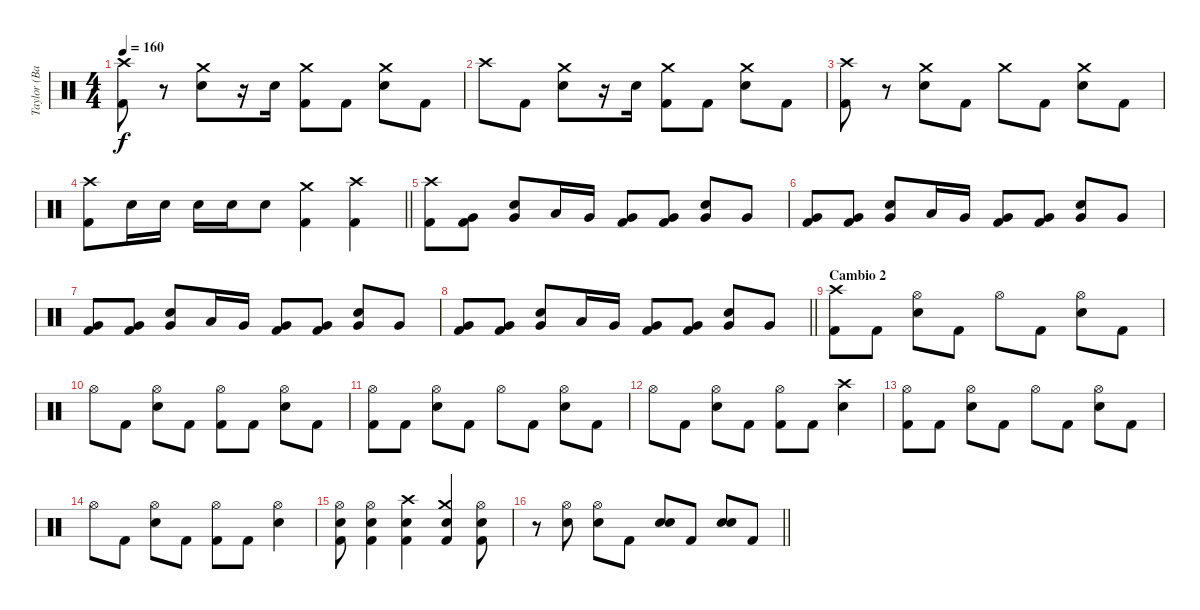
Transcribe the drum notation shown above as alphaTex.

\track ("Taylor (Batería)" "Taylor (Ba") {instrument percussion}
\staff {score}
\articulation defaults
\ts (4 4)
\tempo 160
\clef neutral
\ks c
("Crash high (hit)" "Kick (hit) 2").8{dy f} r.8 ("Crash medium (hit)" "Electric Snare (hit)").8 r.16 "Electric Snare (hit)".16 ("Crash medium (hit)" "Kick (hit) 2").8 "Kick (hit) 2".8 ("Crash medium (hit)" "Electric Snare (hit)").8 "Kick (hit) 2".8 |
"Crash high (hit)".8 "Kick (hit) 2".8 ("Crash medium (hit)" "Electric Snare (hit)").8 r.16 "Electric Snare (hit)".16 ("Crash medium (hit)" "Kick (hit) 2").8 "Kick (hit) 2".8 ("Crash medium (hit)" "Electric Snare (hit)").8 "Kick (hit) 2".8 |
("Crash high (hit)" "Kick (hit) 2").8 r.8 ("Crash medium (hit)" "Electric Snare (hit)").8 "Kick (hit) 2".8 "Crash medium (hit)".8 "Kick (hit) 2".8 ("Crash medium (hit)" "Electric Snare (hit)").8 "Kick (hit) 2".8 |
\barLineRight lightlight
("Crash high (hit)" "Kick (hit) 2").8 "Electric Snare (hit)".16 "Electric Snare (hit)".16 "Electric Snare (hit)".16 "Electric Snare (hit)".16 "Electric Snare (hit)".8 ("Crash medium (hit)" "Kick (hit) 2").4 ("Crash high (hit)" "Kick (hit) 2").4 |
("Crash high (hit)" "Kick (hit) 2").8 ("Very Low Tom (hit)" "Kick (hit) 2").8 ("Very Low Tom (hit)" "Electric Snare (hit)").8 "Low Tom (hit)".16 "Very Low Tom (hit)".16 ("Very Low Tom (hit)" "Kick (hit) 2").8 ("Very Low Tom (hit)" "Kick (hit) 2").8 ("Very Low Tom (hit)" "Electric Snare (hit)").8 "Very Low Tom (hit)".8 |
("Very Low Tom (hit)" "Kick (hit) 2").8 ("Very Low Tom (hit)" "Kick (hit) 2").8 ("Very Low Tom (hit)" "Electric Snare (hit)").8 "Low Tom (hit)".16 "Very Low Tom (hit)".16 ("Very Low Tom (hit)" "Kick (hit) 2").8 ("Very Low Tom (hit)" "Kick (hit) 2").8 ("Very Low Tom (hit)" "Electric Snare (hit)").8 "Very Low Tom (hit)".8 |
("Very Low Tom (hit)" "Kick (hit) 2").8 ("Very Low Tom (hit)" "Kick (hit) 2").8 ("Very Low Tom (hit)" "Electric Snare (hit)").8 "Low Tom (hit)".16 "Very Low Tom (hit)".16 ("Very Low Tom (hit)" "Kick (hit) 2").8 ("Very Low Tom (hit)" "Kick (hit) 2").8 ("Very Low Tom (hit)" "Electric Snare (hit)").8 "Very Low Tom (hit)".8 |
\barLineRight lightlight
("Very Low Tom (hit)" "Kick (hit) 2").8 ("Very Low Tom (hit)" "Kick (hit) 2").8 ("Very Low Tom (hit)" "Electric Snare (hit)").8 "Low Tom (hit)".16 "Very Low Tom (hit)".16 ("Very Low Tom (hit)" "Kick (hit) 2").8 ("Very Low Tom (hit)" "Kick (hit) 2").8 ("Very Low Tom (hit)" "Electric Snare (hit)").8 "Very Low Tom (hit)".8 |
\section ("" "Cambio 2")
("Crash high (hit)" "Kick (hit) 2").8 "Kick (hit) 2".8 ("Hi-Hat (open)" "Electric Snare (hit)").8 "Kick (hit) 2".8 "Hi-Hat (open)".8 "Kick (hit) 2".8 ("Hi-Hat (open)" "Electric Snare (hit)").8 "Kick (hit) 2".8 |
"Hi-Hat (open)".8 "Kick (hit) 2".8 ("Hi-Hat (open)" "Electric Snare (hit)").8 "Kick (hit) 2".8 ("Hi-Hat (open)" "Kick (hit) 2").8 "Kick (hit) 2".8 ("Hi-Hat (open)" "Electric Snare (hit)").8 "Kick (hit) 2".8 |
("Hi-Hat (open)" "Kick (hit) 2").8 "Kick (hit) 2".8 ("Hi-Hat (open)" "Electric Snare (hit)").8 "Kick (hit) 2".8 "Hi-Hat (open)".8 "Kick (hit) 2".8 ("Hi-Hat (open)" "Electric Snare (hit)").8 "Kick (hit) 2".8 |
"Hi-Hat (open)".8 "Kick (hit) 2".8 ("Hi-Hat (open)" "Electric Snare (hit)").8 "Kick (hit) 2".8 ("Hi-Hat (open)" "Kick (hit) 2").8 "Kick (hit) 2".8 ("Crash high (hit)" "Electric Snare (hit)").4 |
("Hi-Hat (open)" "Kick (hit) 2").8 "Kick (hit) 2".8 ("Hi-Hat (open)" "Electric Snare (hit)").8 "Kick (hit) 2".8 "Hi-Hat (open)".8 "Kick (hit) 2".8 ("Hi-Hat (open)" "Electric Snare (hit)").8 "Kick (hit) 2".8 |
"Hi-Hat (open)".8 "Kick (hit) 2".8 ("Hi-Hat (open)" "Electric Snare (hit)").8 "Kick (hit) 2".8 ("Hi-Hat (open)" "Kick (hit) 2").8 "Kick (hit) 2".8 ("Hi-Hat (open)" "Electric Snare (hit)").4 |
("Hi-Hat (open)" "Electric Snare (hit)" "Kick (hit) 2").8 ("Hi-Hat (open)" "Electric Snare (hit)" "Kick (hit) 2").4 ("Crash high (hit)" "Electric Snare (hit)" "Kick (hit) 2").4 ("Crash medium (hit)" "Electric Snare (hit)" "Kick (hit) 2").4 ("Hi-Hat (open)" "Electric Snare (hit)" "Kick (hit) 2").8 |
\barLineRight lightlight
r.8 ("Hi-Hat (open)" "Electric Snare (hit)").8 ("Hi-Hat (open)" "Electric Snare (hit)").8 "Kick (hit) 2".8 ("Electric Snare (hit)" "Electric Snare (hit)").8{bu 240} "Kick (hit) 2".8 ("Electric Snare (hit)" "Electric Snare (hit)").8{bu 240} "Kick (hit) 2".8
